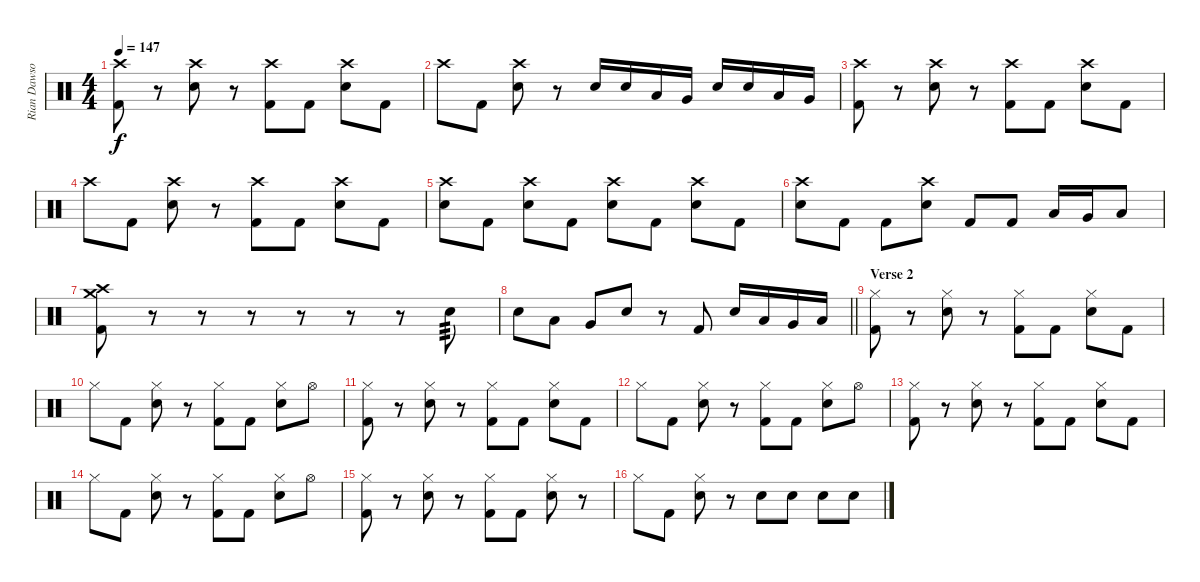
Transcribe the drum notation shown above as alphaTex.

\track ("Rian Dawson (Drums)" "Rian Dawso") {instrument percussion}
\staff {score}
\articulation defaults
\ts (4 4)
\tempo 147
\clef neutral
\ks c
("Crash high (hit)" "Kick (hit) 2").8{dy f} r.8 ("Crash high (hit)" "Electric Snare (hit)").8 r.8 ("Crash high (hit)" "Kick (hit) 2").8 "Kick (hit) 2".8 ("Crash high (hit)" "Electric Snare (hit)").8 "Kick (hit) 2".8 |
"Crash high (hit)".8 "Kick (hit) 2".8 ("Crash high (hit)" "Electric Snare (hit)").8 r.8 "Electric Snare (hit)".16 "Electric Snare (hit)".16 "Low Tom (hit)".16 "Very Low Tom (hit)".16 "Electric Snare (hit)".16 "Electric Snare (hit)".16 "Low Tom (hit)".16 "Very Low Tom (hit)".16 |
("Crash high (hit)" "Kick (hit) 2").8 r.8 ("Crash high (hit)" "Electric Snare (hit)").8 r.8 ("Crash high (hit)" "Kick (hit) 2").8 "Kick (hit) 2".8 ("Crash high (hit)" "Electric Snare (hit)").8 "Kick (hit) 2".8 |
"Crash high (hit)".8 "Kick (hit) 2".8 ("Crash high (hit)" "Electric Snare (hit)").8 r.8 ("Crash high (hit)" "Kick (hit) 2").8 "Kick (hit) 2".8 ("Crash high (hit)" "Electric Snare (hit)").8 "Kick (hit) 2".8 |
("Crash high (hit)" "Electric Snare (hit)").8 "Kick (hit) 2".8 ("Crash high (hit)" "Electric Snare (hit)").8 "Kick (hit) 2".8 ("Crash high (hit)" "Electric Snare (hit)").8 "Kick (hit) 2".8 ("Crash high (hit)" "Electric Snare (hit)").8 "Kick (hit) 2".8 |
("Crash high (hit)" "Electric Snare (hit)").8 "Kick (hit) 2".8 "Kick (hit) 2".8 ("Crash high (hit)" "Electric Snare (hit)").8 "Kick (hit) 2".8 "Kick (hit) 2".8 "Low Tom (hit)".16 "Very Low Tom (hit)".16 "Low Floor Tom (hit)".8 |
("Crash high (hit)" "Crash medium (hit)" "Kick (hit) 2").8 r.8 r.8 r.8 r.8 r.8 r.8 "Electric Snare (hit)".8{tp 3} |
\barLineRight lightlight "Electric Snare (hit)".8 "Low Tom (hit)".8 "Very Low Tom (hit)".8 "Electric Snare (hit)".8
r.8 "Kick (hit) 2".8 "Electric Snare (hit)".16 "Low Tom (hit)".16 "Very Low Tom (hit)".16 "Low Floor Tom (hit)".16 |
\section ("" "Verse 2")
("Hi-Hat (closed)" "Kick (hit) 2").8 r.8 ("Electric Snare (hit)" "Hi-Hat (closed)").8 r.8 ("Hi-Hat (closed)" "Kick (hit) 2").8 "Kick (hit) 2".8 ("Electric Snare (hit)" "Hi-Hat (closed)").8 "Kick (hit) 2".8 |
"Hi-Hat (closed)".8 "Kick (hit) 2".8 ("Electric Snare (hit)" "Hi-Hat (closed)").8 r.8 ("Hi-Hat (closed)" "Kick (hit) 2").8 "Kick (hit) 2".8 ("Electric Snare (hit)" "Hi-Hat (closed)").8 "Hi-Hat (open)".8 |
("Hi-Hat (closed)" "Kick (hit) 2").8 r.8 ("Electric Snare (hit)" "Hi-Hat (closed)").8 r.8 ("Hi-Hat (closed)" "Kick (hit) 2").8 "Kick (hit) 2".8 ("Electric Snare (hit)" "Hi-Hat (closed)").8 "Kick (hit) 2".8 |
"Hi-Hat (closed)".8 "Kick (hit) 2".8 ("Electric Snare (hit)" "Hi-Hat (closed)").8 r.8 ("Hi-Hat (closed)" "Kick (hit) 2").8 "Kick (hit) 2".8 ("Electric Snare (hit)" "Hi-Hat (closed)").8 "Hi-Hat (open)".8 |
("Hi-Hat (closed)" "Kick (hit) 2").8 r.8 ("Electric Snare (hit)" "Hi-Hat (closed)").8 r.8 ("Hi-Hat (closed)" "Kick (hit) 2").8 "Kick (hit) 2".8 ("Electric Snare (hit)" "Hi-Hat (closed)").8 "Kick (hit) 2".8 |
"Hi-Hat (closed)".8 "Kick (hit) 2".8 ("Electric Snare (hit)" "Hi-Hat (closed)").8 r.8 ("Hi-Hat (closed)" "Kick (hit) 2").8 "Kick (hit) 2".8 ("Electric Snare (hit)" "Hi-Hat (closed)").8 "Hi-Hat (open)".8 |
("Hi-Hat (closed)" "Kick (hit) 2").8 r.8 ("Electric Snare (hit)" "Hi-Hat (closed)").8 r.8 ("Hi-Hat (closed)" "Kick (hit) 2").8 "Kick (hit) 2".8 ("Electric Snare (hit)" "Hi-Hat (closed)").8 r.8 |
"Hi-Hat (closed)".8 "Kick (hit) 2".8 ("Electric Snare (hit)" "Hi-Hat (closed)").8 r.8 "Electric Snare (hit)".8 "Electric Snare (hit)".8 "Electric Snare (hit)".8 "Electric Snare (hit)".8
